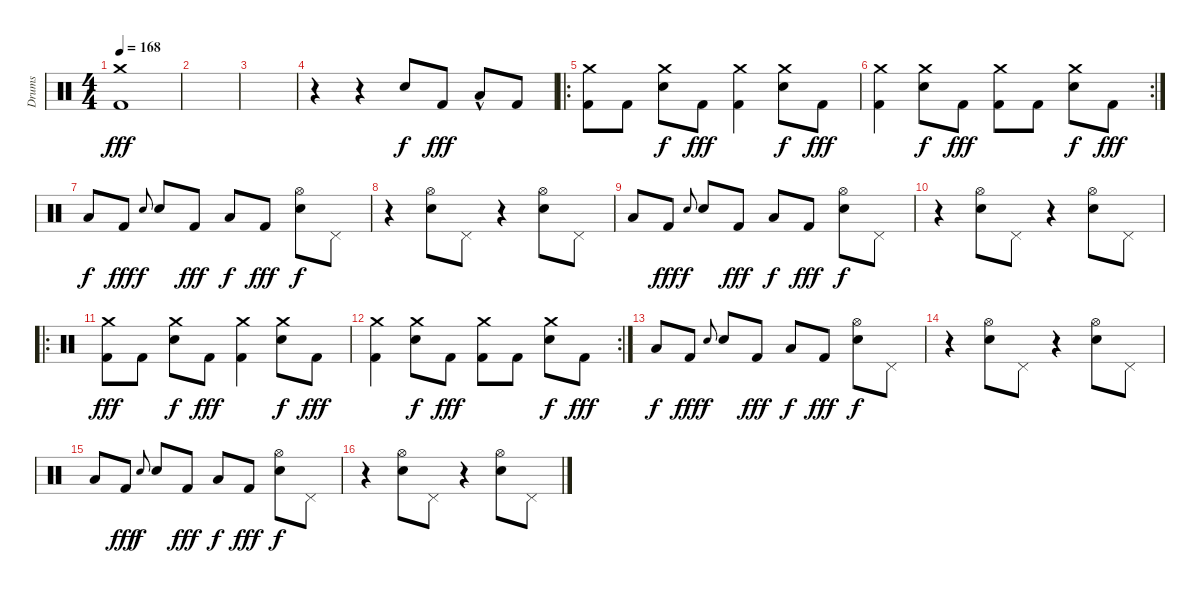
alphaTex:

\track ("Drums" "Drums") {instrument percussion}
\staff {score}
\articulation defaults
\ts (4 4)
\tempo 168
\clef neutral
\ks c
("Crash medium (hit)" "Kick (hit) 2").1{dy fff} |
|
|
r.4 r.4 "Electric Snare (hit)".8{dy f} "Kick (hit) 2".8{dy fff} "Low Tom (hit)"{hac}.8 "Kick (hit) 2".8 |
\ro
("Crash medium (hit)" "Kick (hit) 2").8 "Kick (hit) 2".8 ("Crash medium (hit)" "Electric Snare (hit)").8{dy f} "Kick (hit) 2".8{dy fff} ("Crash medium (hit)" "Kick (hit) 2").4 ("Crash medium (hit)" "Electric Snare (hit)").8{dy f} "Kick (hit) 2".8{dy fff} |
\rc 2
("Crash medium (hit)" "Kick (hit) 2").4 ("Crash medium (hit)" "Electric Snare (hit)").8{dy f} "Kick (hit) 2".8{dy fff} ("Crash medium (hit)" "Kick (hit) 2").8 "Kick (hit) 2".8 ("Crash medium (hit)" "Electric Snare (hit)").8{dy f} "Kick (hit) 2".8{dy fff} |
"Low Tom (hit)".8{dy f} "Kick (hit) 2".8{dy fff} "Electric Snare (hit)".8{gr onbeat dy f} "Electric Snare (hit)".8 "Kick (hit) 2".8{dy fff} "Low Tom (hit)".8{dy f} "Kick (hit) 2".8{dy fff} ("Hi-Hat (open)" "Electric Snare (hit)").8{dy f} "Pedal Hi-Hat (hit)".8 |
r.4 ("Hi-Hat (open)" "Electric Snare (hit)").8 "Pedal Hi-Hat (hit)".8 r.4 ("Hi-Hat (open)" "Electric Snare (hit)").8 "Pedal Hi-Hat (hit)".8 |
"Low Tom (hit)".8 "Kick (hit) 2".8{dy fff} "Electric Snare (hit)".8{gr onbeat dy f} "Electric Snare (hit)".8 "Kick (hit) 2".8{dy fff} "Low Tom (hit)".8{dy f} "Kick (hit) 2".8{dy fff} ("Hi-Hat (open)" "Electric Snare (hit)").8{dy f} "Pedal Hi-Hat (hit)".8 |
r.4 ("Hi-Hat (open)" "Electric Snare (hit)").8 "Pedal Hi-Hat (hit)".8 r.4 ("Hi-Hat (open)" "Electric Snare (hit)").8 "Pedal Hi-Hat (hit)".8 |
\ro
("Crash medium (hit)" "Kick (hit) 2").8{dy fff} "Kick (hit) 2".8 ("Crash medium (hit)" "Electric Snare (hit)").8{dy f} "Kick (hit) 2".8{dy fff} ("Crash medium (hit)" "Kick (hit) 2").4 ("Crash medium (hit)" "Electric Snare (hit)").8{dy f} "Kick (hit) 2".8{dy fff} |
\rc 2
("Crash medium (hit)" "Kick (hit) 2").4 ("Crash medium (hit)" "Electric Snare (hit)").8{dy f} "Kick (hit) 2".8{dy fff} ("Crash medium (hit)" "Kick (hit) 2").8 "Kick (hit) 2".8 ("Crash medium (hit)" "Electric Snare (hit)").8{dy f} "Kick (hit) 2".8{dy fff} |
"Low Tom (hit)".8{dy f} "Kick (hit) 2".8{dy fff} "Electric Snare (hit)".8{gr onbeat dy f} "Electric Snare (hit)".8 "Kick (hit) 2".8{dy fff} "Low Tom (hit)".8{dy f} "Kick (hit) 2".8{dy fff} ("Hi-Hat (open)" "Electric Snare (hit)").8{dy f} "Pedal Hi-Hat (hit)".8 |
r.4 ("Hi-Hat (open)" "Electric Snare (hit)").8 "Pedal Hi-Hat (hit)".8 r.4 ("Hi-Hat (open)" "Electric Snare (hit)").8 "Pedal Hi-Hat (hit)".8 |
"Low Tom (hit)".8 "Kick (hit) 2".8{dy fff} "Electric Snare (hit)".8{gr onbeat dy f} "Electric Snare (hit)".8 "Kick (hit) 2".8{dy fff} "Low Tom (hit)".8{dy f} "Kick (hit) 2".8{dy fff} ("Hi-Hat (open)" "Electric Snare (hit)").8{dy f} "Pedal Hi-Hat (hit)".8 |
r.4 ("Hi-Hat (open)" "Electric Snare (hit)").8 "Pedal Hi-Hat (hit)".8 r.4 ("Hi-Hat (open)" "Electric Snare (hit)").8 "Pedal Hi-Hat (hit)".8
